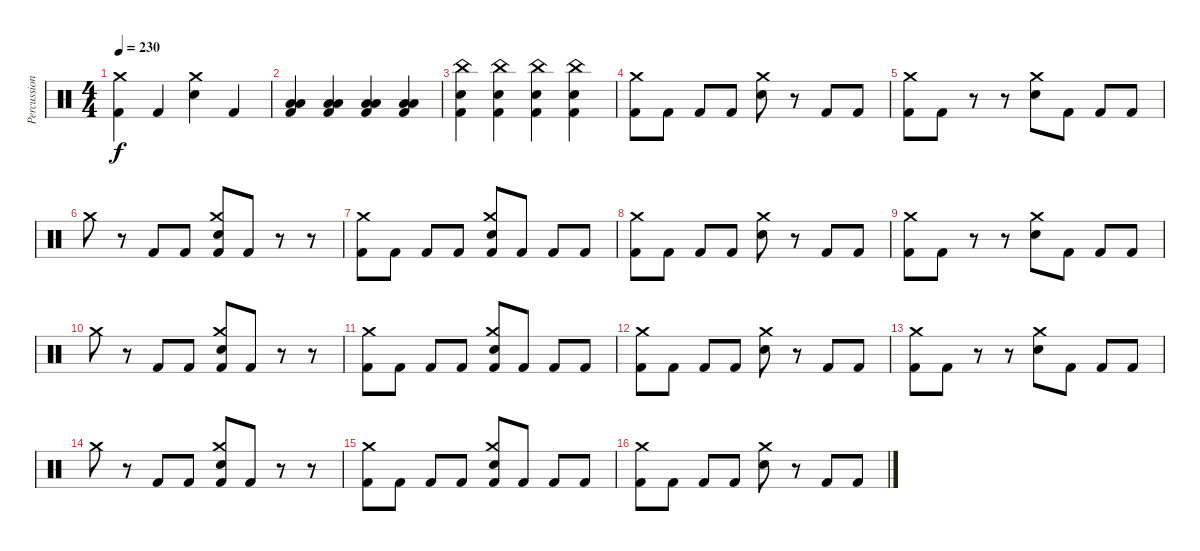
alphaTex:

\track ("Percussions" "Percussion") {instrument percussion}
\staff {score}
\articulation defaults
\ts (4 4)
\tempo 230
\clef neutral
\ks c
("Kick (hit) 2" "Crash medium (hit)").4{dy f} "Kick (hit) 2".4 ("Electric Snare (hit)" "Crash medium (hit)").4 "Kick (hit) 2".4 |
("Kick (hit) 2" "Low Tom (hit)" "Low Floor Tom (hit)").4 ("Kick (hit) 2" "Low Tom (hit)" "Low Floor Tom (hit)").4 ("Kick (hit) 2" "Low Tom (hit)" "Low Floor Tom (hit)").4 ("Kick (hit) 2" "Low Tom (hit)" "Low Floor Tom (hit)").4 |
("Kick (hit) 2" "Electric Snare (hit)" "China (hit)").4 ("Kick (hit) 2" "Electric Snare (hit)" "China (hit)").4 ("Kick (hit) 2" "Electric Snare (hit)" "China (hit)").4 ("Kick (hit) 2" "Electric Snare (hit)" "China (hit)").4 |
("Kick (hit) 2" "Crash medium (hit)").8 "Kick (hit) 2".8 "Kick (hit) 2".8 "Kick (hit) 2".8 ("Electric Snare (hit)" "Crash medium (hit)").8 r.8 "Kick (hit) 2".8 "Kick (hit) 2".8 |
("Kick (hit) 2" "Crash medium (hit)").8 "Kick (hit) 2".8 r.8 r.8 ("Electric Snare (hit)" "Crash medium (hit)").8 "Kick (hit) 2".8 "Kick (hit) 2".8 "Kick (hit) 2".8 |
"Crash medium (hit)".8 r.8 "Kick (hit) 2".8 "Kick (hit) 2".8 ("Kick (hit) 2" "Electric Snare (hit)" "Crash medium (hit)").8 "Kick (hit) 2".8 r.8 r.8 |
("Kick (hit) 2" "Crash medium (hit)").8 "Kick (hit) 2".8 "Kick (hit) 2".8 "Kick (hit) 2".8 ("Kick (hit) 2" "Electric Snare (hit)" "Crash medium (hit)").8 "Kick (hit) 2".8 "Kick (hit) 2".8 "Kick (hit) 2".8 |
("Kick (hit) 2" "Crash medium (hit)").8 "Kick (hit) 2".8 "Kick (hit) 2".8 "Kick (hit) 2".8 ("Electric Snare (hit)" "Crash medium (hit)").8 r.8 "Kick (hit) 2".8 "Kick (hit) 2".8 |
("Kick (hit) 2" "Crash medium (hit)").8 "Kick (hit) 2".8 r.8 r.8 ("Electric Snare (hit)" "Crash medium (hit)").8 "Kick (hit) 2".8 "Kick (hit) 2".8 "Kick (hit) 2".8 |
"Crash medium (hit)".8 r.8 "Kick (hit) 2".8 "Kick (hit) 2".8 ("Kick (hit) 2" "Electric Snare (hit)" "Crash medium (hit)").8 "Kick (hit) 2".8 r.8 r.8 |
("Kick (hit) 2" "Crash medium (hit)").8 "Kick (hit) 2".8 "Kick (hit) 2".8 "Kick (hit) 2".8 ("Kick (hit) 2" "Electric Snare (hit)" "Crash medium (hit)").8 "Kick (hit) 2".8 "Kick (hit) 2".8 "Kick (hit) 2".8 |
("Kick (hit) 2" "Crash medium (hit)").8 "Kick (hit) 2".8 "Kick (hit) 2".8 "Kick (hit) 2".8 ("Electric Snare (hit)" "Crash medium (hit)").8 r.8 "Kick (hit) 2".8 "Kick (hit) 2".8 |
("Kick (hit) 2" "Crash medium (hit)").8 "Kick (hit) 2".8 r.8 r.8 ("Electric Snare (hit)" "Crash medium (hit)").8 "Kick (hit) 2".8 "Kick (hit) 2".8 "Kick (hit) 2".8 |
"Crash medium (hit)".8 r.8 "Kick (hit) 2".8 "Kick (hit) 2".8 ("Kick (hit) 2" "Electric Snare (hit)" "Crash medium (hit)").8 "Kick (hit) 2".8 r.8 r.8 |
("Kick (hit) 2" "Crash medium (hit)").8 "Kick (hit) 2".8 "Kick (hit) 2".8 "Kick (hit) 2".8 ("Kick (hit) 2" "Electric Snare (hit)" "Crash medium (hit)").8 "Kick (hit) 2".8 "Kick (hit) 2".8 "Kick (hit) 2".8 |
("Kick (hit) 2" "Crash medium (hit)").8 "Kick (hit) 2".8 "Kick (hit) 2".8 "Kick (hit) 2".8 ("Electric Snare (hit)" "Crash medium (hit)").8 r.8 "Kick (hit) 2".8 "Kick (hit) 2".8
